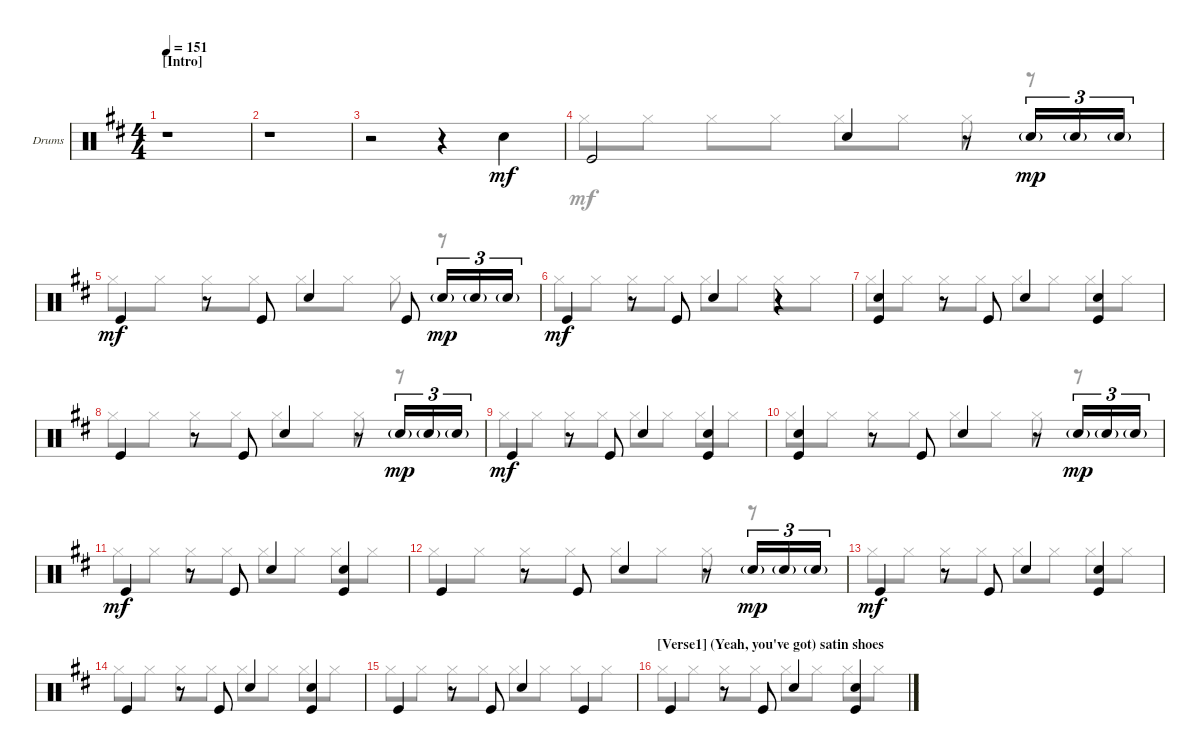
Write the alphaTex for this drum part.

\bracketExtendMode groupsimilarinstruments
\firstSystemTrackNameOrientation horizontal
\otherSystemsTrackNameOrientation horizontal
\track ("Drumkit" "Drums") {instrument percussion}
\staff {score}
\articulation defaults
\voice
\ts (4 4)
\section ("" "[Intro]")
\tempo 151
\clef neutral
\ks d
r.1{dy mf} |
r.1 |
r.2 r.4 "Snare (hit) 2".4 |
"Kick (hit)".2 "Snare (hit) 2".4 r.8 "Snare (hit) 2"{g}.16{tu (3 2) dy mp} "Snare (hit) 2"{g}.16{tu (3 2)} "Snare (hit) 2"{g}.16{tu (3 2)} |
"Kick (hit)".4{dy mf} r.8 "Kick (hit)".8 "Snare (hit) 2".4 "Kick (hit)".8 "Snare (hit) 2"{g}.16{tu (3 2) dy mp} "Snare (hit) 2"{g}.16{tu (3 2)} "Snare (hit) 2"{g}.16{tu (3 2)} |
"Kick (hit)".4{dy mf} r.8 "Kick (hit)".8 "Snare (hit) 2".4 r.4 |
("Kick (hit)" "Snare (hit) 2").4 r.8 "Kick (hit)".8 "Snare (hit) 2".4 ("Kick (hit)" "Snare (hit) 2").4 |
"Kick (hit)".4 r.8 "Kick (hit)".8 "Snare (hit) 2".4 r.8 "Snare (hit) 2"{g}.16{tu (3 2) dy mp} "Snare (hit) 2"{g}.16{tu (3 2)} "Snare (hit) 2"{g}.16{tu (3 2)} |
"Kick (hit)".4{dy mf} r.8 "Kick (hit)".8 "Snare (hit) 2".4 ("Kick (hit)" "Snare (hit) 2").4 |
("Kick (hit)" "Snare (hit) 2").4 r.8 "Kick (hit)".8 "Snare (hit) 2".4 r.8 "Snare (hit) 2"{g}.16{tu (3 2) dy mp} "Snare (hit) 2"{g}.16{tu (3 2)} "Snare (hit) 2"{g}.16{tu (3 2)} |
"Kick (hit)".4{dy mf} r.8 "Kick (hit)".8 "Snare (hit) 2".4 ("Kick (hit)" "Snare (hit) 2").4 |
"Kick (hit)".4 r.8 "Kick (hit)".8 "Snare (hit) 2".4 r.8 "Snare (hit) 2"{g}.16{tu (3 2) dy mp} "Snare (hit) 2"{g}.16{tu (3 2)} "Snare (hit) 2"{g}.16{tu (3 2)} |
"Kick (hit)".4{dy mf} r.8 "Kick (hit)".8 "Snare (hit) 2".4 ("Kick (hit)" "Snare (hit) 2").4 |
"Kick (hit)".4 r.8 "Kick (hit)".8 "Snare (hit) 2".4 ("Kick (hit)" "Snare (hit) 2").4 |
"Kick (hit)".4 r.8 "Kick (hit)".8 "Snare (hit) 2".4 "Kick (hit)".4 |
\section ("" "[Verse1] (Yeah, you've got) satin shoes")
"Kick (hit)".4 r.8 "Kick (hit)".8 "Snare (hit) 2".4 ("Kick (hit)" "Snare (hit) 2").4
\voice
\clef neutral
\ottava regular
\simile none
\ks d
|
|
|
"Hi-Hat (closed)".8 "Hi-Hat (closed)".8 "Hi-Hat (closed)".8 "Hi-Hat (closed)".8 "Hi-Hat (closed)".8 "Hi-Hat (closed)".8 "Hi-Hat (closed)".8 r.8 |
"Hi-Hat (closed)".8 "Hi-Hat (closed)".8 "Hi-Hat (closed)".8 "Hi-Hat (closed)".8 "Hi-Hat (closed)".8 "Hi-Hat (closed)".8 "Hi-Hat (closed)".8 r.8 |
"Hi-Hat (closed)".8 "Hi-Hat (closed)".8 "Hi-Hat (closed)".8 "Hi-Hat (closed)".8 "Hi-Hat (closed)".8 "Hi-Hat (closed)".8 "Hi-Hat (closed)".8 "Hi-Hat (closed)".8 |
"Hi-Hat (closed)".8 "Hi-Hat (closed)".8 "Hi-Hat (closed)".8 "Hi-Hat (closed)".8 "Hi-Hat (closed)".8 "Hi-Hat (closed)".8 "Hi-Hat (closed)".8 "Hi-Hat (closed)".8 |
"Hi-Hat (closed)".8 "Hi-Hat (closed)".8 "Hi-Hat (closed)".8 "Hi-Hat (closed)".8 "Hi-Hat (closed)".8 "Hi-Hat (closed)".8 "Hi-Hat (closed)".8 r.8 |
"Hi-Hat (closed)".8 "Hi-Hat (closed)".8 "Hi-Hat (closed)".8 "Hi-Hat (closed)".8 "Hi-Hat (closed)".8 "Hi-Hat (closed)".8 "Hi-Hat (closed)".8 "Hi-Hat (closed)".8 |
"Hi-Hat (closed)".8 "Hi-Hat (closed)".8 "Hi-Hat (closed)".8 "Hi-Hat (closed)".8 "Hi-Hat (closed)".8 "Hi-Hat (closed)".8 "Hi-Hat (closed)".8 r.8 |
"Hi-Hat (closed)".8 "Hi-Hat (closed)".8 "Hi-Hat (closed)".8 "Hi-Hat (closed)".8 "Hi-Hat (closed)".8 "Hi-Hat (closed)".8 "Hi-Hat (closed)".8 "Hi-Hat (closed)".8 |
"Hi-Hat (closed)".8 "Hi-Hat (closed)".8 "Hi-Hat (closed)".8 "Hi-Hat (closed)".8 "Hi-Hat (closed)".8 "Hi-Hat (closed)".8 "Hi-Hat (closed)".8 r.8 |
"Hi-Hat (closed)".8 "Hi-Hat (closed)".8 "Hi-Hat (closed)".8 "Hi-Hat (closed)".8 "Hi-Hat (closed)".8 "Hi-Hat (closed)".8 "Hi-Hat (closed)".8 "Hi-Hat (closed)".8 |
"Hi-Hat (closed)".8 "Hi-Hat (closed)".8 "Hi-Hat (closed)".8 "Hi-Hat (closed)".8 "Hi-Hat (closed)".8 "Hi-Hat (closed)".8 "Hi-Hat (closed)".8 "Hi-Hat (closed)".8 |
"Hi-Hat (closed)".8 "Hi-Hat (closed)".8 "Hi-Hat (closed)".8 "Hi-Hat (closed)".8 "Hi-Hat (closed)".8 "Hi-Hat (closed)".8 "Hi-Hat (closed)".8 "Hi-Hat (closed)".8 |
"Hi-Hat (closed)".8 "Hi-Hat (closed)".8 "Hi-Hat (closed)".8 "Hi-Hat (closed)".8 "Hi-Hat (closed)".8 "Hi-Hat (closed)".8 "Hi-Hat (closed)".8 "Hi-Hat (closed)".8
